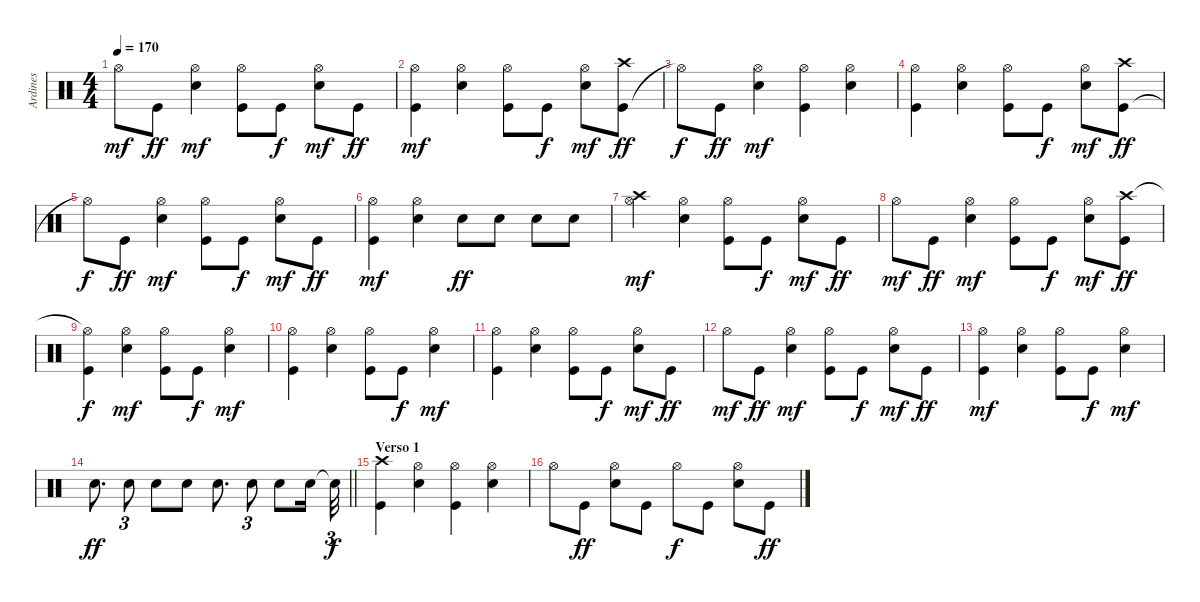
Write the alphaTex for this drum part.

\track ("Ardines" "Ardines") {instrument percussion}
\staff {score}
\articulation defaults
\ts (4 4)
\tempo 170
\clef neutral
\ks c "Hi-Hat (open)".8{dy mf} "Kick (hit)".8{dy ff}
("Snare (hit) 2" "Hi-Hat (open)").4{dy mf} ("Kick (hit)" "Hi-Hat (open)").8 "Kick (hit)".8{dy f} ("Snare (hit) 2" "Hi-Hat (open)").8{dy mf} "Kick (hit)".8{dy ff} |
("Kick (hit)" "Hi-Hat (open)").4{dy mf} ("Snare (hit) 2" "Hi-Hat (open)").4 ("Kick (hit)" "Hi-Hat (open)").8 "Kick (hit)".8{dy f} ("Snare (hit) 2" "Hi-Hat (open)").8{dy mf} ("Kick (hit)" "Crash high (hit)").8{dy ff} |
"Hi-Hat (open)"{t}.8{dy f} "Kick (hit)".8{dy ff} ("Snare (hit) 2" "Hi-Hat (open)").4{dy mf} ("Kick (hit)" "Hi-Hat (open)").4 ("Snare (hit) 2" "Hi-Hat (open)").4 |
("Kick (hit)" "Hi-Hat (open)").4 ("Snare (hit) 2" "Hi-Hat (open)").4 ("Kick (hit)" "Hi-Hat (open)").8 "Kick (hit)".8{dy f} ("Snare (hit) 2" "Hi-Hat (open)").8{dy mf} ("Kick (hit)" "Crash high (hit)").8{dy ff} |
"Hi-Hat (open)"{t}.8{dy f} "Kick (hit)".8{dy ff} ("Snare (hit) 2" "Hi-Hat (open)").4{dy mf} ("Kick (hit)" "Hi-Hat (open)").8 "Kick (hit)".8{dy f} ("Snare (hit) 2" "Hi-Hat (open)").8{dy mf} "Kick (hit)".8{dy ff} |
("Kick (hit)" "Hi-Hat (open)").4{dy mf} ("Snare (hit) 2" "Hi-Hat (open)").4 "Snare (hit) 2".8{dy ff} "Snare (hit) 2".8 "Snare (hit) 2".8 "Snare (hit) 2".8 |
("Crash high (hit)" "Hi-Hat (open)").4{dy mf} ("Snare (hit) 2" "Hi-Hat (open)").4 ("Kick (hit)" "Hi-Hat (open)").8 "Kick (hit)".8{dy f} ("Snare (hit) 2" "Hi-Hat (open)").8{dy mf} "Kick (hit)".8{dy ff} |
"Hi-Hat (open)".8{dy mf} "Kick (hit)".8{dy ff} ("Snare (hit) 2" "Hi-Hat (open)").4{dy mf} ("Kick (hit)" "Hi-Hat (open)").8 "Kick (hit)".8{dy f} ("Snare (hit) 2" "Hi-Hat (open)").8{dy mf} ("Kick (hit)" "Crash high (hit)").8{dy ff} |
("Kick (hit)" "Hi-Hat (open)"{t}).4{dy f} ("Snare (hit) 2" "Hi-Hat (open)").4{dy mf} ("Kick (hit)" "Hi-Hat (open)").8 "Kick (hit)".8{dy f} ("Snare (hit) 2" "Hi-Hat (open)").4{dy mf} |
("Kick (hit)" "Hi-Hat (open)").4 ("Snare (hit) 2" "Hi-Hat (open)").4 ("Kick (hit)" "Hi-Hat (open)").8 "Kick (hit)".8{dy f} ("Snare (hit) 2" "Hi-Hat (open)").4{dy mf} |
("Kick (hit)" "Hi-Hat (open)").4 ("Snare (hit) 2" "Hi-Hat (open)").4 ("Kick (hit)" "Hi-Hat (open)").8 "Kick (hit)".8{dy f} ("Snare (hit) 2" "Hi-Hat (open)").8{dy mf} "Kick (hit)".8{dy ff} |
"Hi-Hat (open)".8{dy mf} "Kick (hit)".8{dy ff} ("Snare (hit) 2" "Hi-Hat (open)").4{dy mf} ("Kick (hit)" "Hi-Hat (open)").8 "Kick (hit)".8{dy f} ("Snare (hit) 2" "Hi-Hat (open)").8{dy mf} "Kick (hit)".8{dy ff} |
("Kick (hit)" "Hi-Hat (open)").4{dy mf} ("Snare (hit) 2" "Hi-Hat (open)").4 ("Kick (hit)" "Hi-Hat (open)").8 "Kick (hit)".8{dy f} ("Snare (hit) 2" "Hi-Hat (open)").4{dy mf} |
\barLineRight lightlight "Snare (hit) 2".8{d dy ff} "Snare (hit) 2".8{tu (3 2)} "Snare (hit) 2".8 "Snare (hit) 2".8 "Snare (hit) 2".8{d} "Snare (hit) 2".8{tu (3 2)} "Snare (hit) 2".8 "Snare (hit) 2".16 "Snare (hit)"{t}.32{tu (3 2) dy f}
|
\section ("" "Verso 1")
("Kick (hit)" "Crash high (hit)").4 ("Snare (hit) 2" "Hi-Hat (open)").4 ("Kick (hit)" "Hi-Hat (open)").4 ("Snare (hit) 2" "Hi-Hat (open)").4 |
"Hi-Hat (open)".8 "Kick (hit)".8{dy ff} ("Snare (hit) 2" "Hi-Hat (open)").8 "Kick (hit)".8 "Hi-Hat (open)".8{dy f} "Kick (hit)".8 ("Snare (hit) 2" "Hi-Hat (open)").8 "Kick (hit)".8{dy ff}
